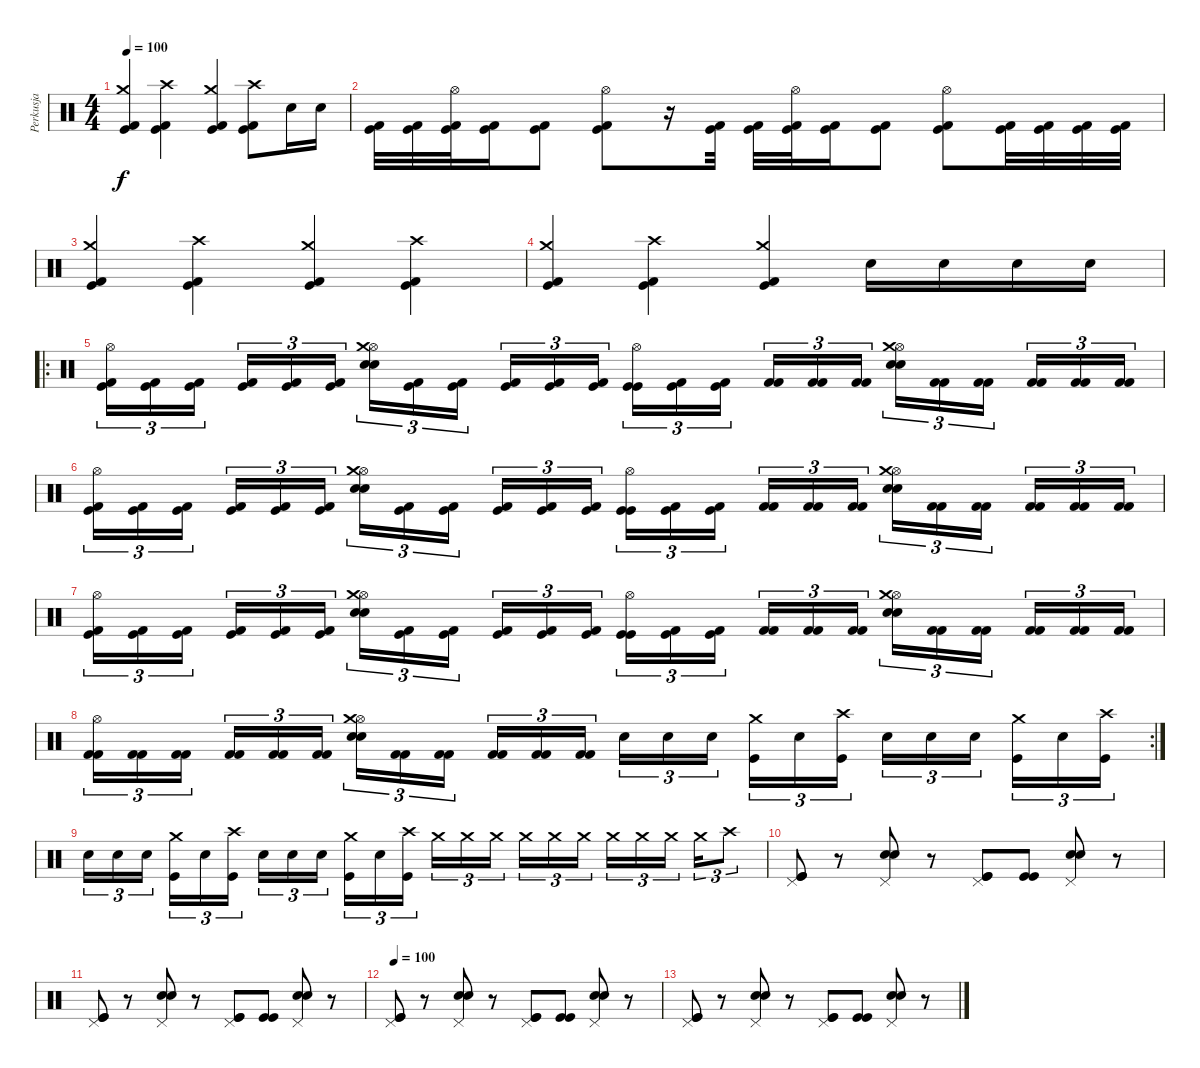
\track ("Perkusja" "Perkusja") {instrument percussion}
\staff {score}
\articulation defaults
\ts (4 4)
\tempo 100
\clef neutral
\ks c
("Kick (hit) 2" "Crash medium (hit)" "Kick (hit)").4{dy f} ("Kick (hit) 2" "Crash high (hit)" "Kick (hit)").4 ("Kick (hit) 2" "Crash medium (hit)" "Kick (hit)").4 ("Kick (hit) 2" "Crash high (hit)" "Kick (hit)").8 "Snare (hit) 2".16 "Snare (hit) 2".16 |
("Kick (hit) 2" "Kick (hit)").32 ("Kick (hit) 2" "Kick (hit)").32 ("Hi-Hat (open)" "Kick (hit) 2" "Kick (hit)").32 ("Kick (hit) 2" "Kick (hit)").16 ("Kick (hit) 2" "Kick (hit)").8 ("Hi-Hat (open)" "Kick (hit) 2" "Kick (hit)").8 r.16 ("Kick (hit) 2" "Kick (hit)").32 ("Kick (hit) 2" "Kick (hit)").32 ("Hi-Hat (open)" "Kick (hit) 2" "Kick (hit)").32 ("Kick (hit) 2" "Kick (hit)").16 ("Kick (hit) 2" "Kick (hit)").8 ("Hi-Hat (open)" "Kick (hit) 2" "Kick (hit)").8 ("Kick (hit) 2" "Kick (hit)").32 ("Kick (hit) 2" "Kick (hit)").32 ("Kick (hit) 2" "Kick (hit)").32 ("Kick (hit) 2" "Kick (hit)").32 |
("Kick (hit) 2" "Crash medium (hit)" "Kick (hit)").4 ("Kick (hit) 2" "Crash high (hit)" "Kick (hit)").4 ("Kick (hit) 2" "Crash medium (hit)" "Kick (hit)").4 ("Kick (hit) 2" "Crash high (hit)" "Kick (hit)").4 |
("Crash medium (hit)" "Kick (hit) 2" "Kick (hit)").4 ("Crash high (hit)" "Kick (hit) 2" "Kick (hit)").4 ("Crash medium (hit)" "Kick (hit) 2" "Kick (hit)").4 "Snare (hit) 2".16 "Snare (hit) 2".16 "Snare (hit) 2".16 "Snare (hit) 2".16 |
\ro
("Hi-Hat (open)" "Kick (hit) 2" "Kick (hit)").16{tu (3 2)} ("Kick (hit) 2" "Kick (hit)").16{tu (3 2)} ("Kick (hit) 2" "Kick (hit)").16{tu (3 2)} ("Kick (hit) 2" "Kick (hit)").16{tu (3 2)} ("Kick (hit) 2" "Kick (hit)").16{tu (3 2)} ("Kick (hit) 2" "Kick (hit)").16{tu (3 2)} ("Hi-Hat (open)" "Crash medium (hit)" "Snare (hit) 2" "Snare (hit) 2").16{tu (3 2)} ("Kick (hit) 2" "Kick (hit)").16{tu (3 2)} ("Kick (hit) 2" "Kick (hit)").16{tu (3 2)} ("Kick (hit) 2" "Kick (hit)").16{tu (3 2)} ("Kick (hit) 2" "Kick (hit)").16{tu (3 2)} ("Kick (hit) 2" "Kick (hit)").16{tu (3 2)} ("Hi-Hat (open)" "Kick (hit)" "Kick (hit)").16{tu (3 2)} ("Kick (hit) 2" "Kick (hit)").16{tu (3 2)} ("Kick (hit) 2" "Kick (hit)").16{tu (3 2)} ("Kick (hit) 2" "Kick (hit) 2").16{tu (3 2)} ("Kick (hit) 2" "Kick (hit) 2").16{tu (3 2)} ("Kick (hit) 2" "Kick (hit) 2").16{tu (3 2)} ("Hi-Hat (open)" "Crash medium (hit)" "Snare (hit) 2" "Snare (hit) 2").16{tu (3 2)} ("Kick (hit) 2" "Kick (hit) 2").16{tu (3 2)} ("Kick (hit) 2" "Kick (hit) 2").16{tu (3 2)} ("Kick (hit) 2" "Kick (hit) 2").16{tu (3 2)} ("Kick (hit) 2" "Kick (hit) 2").16{tu (3 2)} ("Kick (hit) 2" "Kick (hit) 2").16{tu (3 2)} |
("Hi-Hat (open)" "Kick (hit) 2" "Kick (hit)").16{tu (3 2)} ("Kick (hit) 2" "Kick (hit)").16{tu (3 2)} ("Kick (hit) 2" "Kick (hit)").16{tu (3 2)} ("Kick (hit) 2" "Kick (hit)").16{tu (3 2)} ("Kick (hit) 2" "Kick (hit)").16{tu (3 2)} ("Kick (hit) 2" "Kick (hit)").16{tu (3 2)} ("Hi-Hat (open)" "Crash medium (hit)" "Snare (hit) 2" "Snare (hit) 2").16{tu (3 2)} ("Kick (hit) 2" "Kick (hit)").16{tu (3 2)} ("Kick (hit) 2" "Kick (hit)").16{tu (3 2)} ("Kick (hit) 2" "Kick (hit)").16{tu (3 2)} ("Kick (hit) 2" "Kick (hit)").16{tu (3 2)} ("Kick (hit) 2" "Kick (hit)").16{tu (3 2)} ("Hi-Hat (open)" "Kick (hit)" "Kick (hit)").16{tu (3 2)} ("Kick (hit) 2" "Kick (hit)").16{tu (3 2)} ("Kick (hit) 2" "Kick (hit)").16{tu (3 2)} ("Kick (hit) 2" "Kick (hit) 2").16{tu (3 2)} ("Kick (hit) 2" "Kick (hit) 2").16{tu (3 2)} ("Kick (hit) 2" "Kick (hit) 2").16{tu (3 2)} ("Hi-Hat (open)" "Crash medium (hit)" "Snare (hit) 2" "Snare (hit) 2").16{tu (3 2)} ("Kick (hit) 2" "Kick (hit) 2").16{tu (3 2)} ("Kick (hit) 2" "Kick (hit) 2").16{tu (3 2)} ("Kick (hit) 2" "Kick (hit) 2").16{tu (3 2)} ("Kick (hit) 2" "Kick (hit) 2").16{tu (3 2)} ("Kick (hit) 2" "Kick (hit) 2").16{tu (3 2)} |
("Hi-Hat (open)" "Kick (hit) 2" "Kick (hit)").16{tu (3 2)} ("Kick (hit) 2" "Kick (hit)").16{tu (3 2)} ("Kick (hit) 2" "Kick (hit)").16{tu (3 2)} ("Kick (hit) 2" "Kick (hit)").16{tu (3 2)} ("Kick (hit) 2" "Kick (hit)").16{tu (3 2)} ("Kick (hit) 2" "Kick (hit)").16{tu (3 2)} ("Hi-Hat (open)" "Crash medium (hit)" "Snare (hit) 2" "Snare (hit) 2").16{tu (3 2)} ("Kick (hit) 2" "Kick (hit)").16{tu (3 2)} ("Kick (hit) 2" "Kick (hit)").16{tu (3 2)} ("Kick (hit) 2" "Kick (hit)").16{tu (3 2)} ("Kick (hit) 2" "Kick (hit)").16{tu (3 2)} ("Kick (hit) 2" "Kick (hit)").16{tu (3 2)} ("Hi-Hat (open)" "Kick (hit)" "Kick (hit)").16{tu (3 2)} ("Kick (hit) 2" "Kick (hit)").16{tu (3 2)} ("Kick (hit) 2" "Kick (hit)").16{tu (3 2)} ("Kick (hit) 2" "Kick (hit) 2").16{tu (3 2)} ("Kick (hit) 2" "Kick (hit) 2").16{tu (3 2)} ("Kick (hit) 2" "Kick (hit) 2").16{tu (3 2)} ("Hi-Hat (open)" "Crash medium (hit)" "Snare (hit) 2" "Snare (hit) 2").16{tu (3 2)} ("Kick (hit) 2" "Kick (hit) 2").16{tu (3 2)} ("Kick (hit) 2" "Kick (hit) 2").16{tu (3 2)} ("Kick (hit) 2" "Kick (hit) 2").16{tu (3 2)} ("Kick (hit) 2" "Kick (hit) 2").16{tu (3 2)} ("Kick (hit) 2" "Kick (hit) 2").16{tu (3 2)} |
\rc 2
("Hi-Hat (open)" "Kick (hit) 2" "Kick (hit) 2").16{tu (3 2)} ("Kick (hit) 2" "Kick (hit) 2").16{tu (3 2)} ("Kick (hit) 2" "Kick (hit) 2").16{tu (3 2)} ("Kick (hit) 2" "Kick (hit) 2").16{tu (3 2)} ("Kick (hit) 2" "Kick (hit) 2").16{tu (3 2)} ("Kick (hit) 2" "Kick (hit) 2").16{tu (3 2)} ("Hi-Hat (open)" "Crash medium (hit)" "Snare (hit) 2" "Snare (hit) 2").16{tu (3 2)} ("Kick (hit) 2" "Kick (hit) 2").16{tu (3 2)} ("Kick (hit) 2" "Kick (hit) 2").16{tu (3 2)} ("Kick (hit) 2" "Kick (hit) 2").16{tu (3 2)} ("Kick (hit) 2" "Kick (hit) 2").16{tu (3 2)} ("Kick (hit) 2" "Kick (hit) 2").16{tu (3 2)} "Electric Snare (hit)".16{tu (3 2)} "Electric Snare (hit)".16{tu (3 2)} "Electric Snare (hit)".16{tu (3 2)} ("Crash medium (hit)" "Kick (hit)").16{tu (3 2)} "Snare (hit) 2".16{tu (3 2)} ("Crash high (hit)" "Kick (hit)").16{tu (3 2)} "Electric Snare (hit)".16{tu (3 2)} "Electric Snare (hit)".16{tu (3 2)} "Electric Snare (hit)".16{tu (3 2)} ("Crash medium (hit)" "Kick (hit)").16{tu (3 2)} "Snare (hit) 2".16{tu (3 2)} ("Crash high (hit)" "Kick (hit)").16{tu (3 2)} |
"Electric Snare (hit)".16{tu (3 2)} "Electric Snare (hit)".16{tu (3 2)} "Electric Snare (hit)".16{tu (3 2)} ("Crash medium (hit)" "Kick (hit)").16{tu (3 2)} "Snare (hit) 2".16{tu (3 2)} ("Crash high (hit)" "Kick (hit)").16{tu (3 2)} "Electric Snare (hit)".16{tu (3 2)} "Electric Snare (hit)".16{tu (3 2)} "Electric Snare (hit)".16{tu (3 2)} ("Crash medium (hit)" "Kick (hit)").16{tu (3 2)} "Snare (hit) 2".16{tu (3 2)} ("Crash high (hit)" "Kick (hit)").16{tu (3 2)} "Crash medium (hit)".16{tu (3 2)} "Crash medium (hit)".16{tu (3 2)} "Crash medium (hit)".16{tu (3 2)} "Crash medium (hit)".16{tu (3 2)} "Crash medium (hit)".16{tu (3 2)} "Crash medium (hit)".16{tu (3 2)} "Crash medium (hit)".16{tu (3 2)} "Crash medium (hit)".16{tu (3 2)} "Crash medium (hit)".16{tu (3 2)} "Crash medium (hit)".16{tu (3 2)} "Crash high (hit)".8{tu (3 2)} |
("Pedal Hi-Hat (hit)" "Kick (hit)" "Kick (hit)").8 r.8 ("Pedal Hi-Hat (hit)" "Snare (hit) 2" "Snare (hit) 2").8 r.8 ("Pedal Hi-Hat (hit)" "Kick (hit)" "Kick (hit)").8 ("Kick (hit)" "Kick (hit)").8 ("Pedal Hi-Hat (hit)" "Snare (hit) 2" "Snare (hit) 2").8 r.8 |
("Pedal Hi-Hat (hit)" "Kick (hit)" "Kick (hit)").8 r.8 ("Pedal Hi-Hat (hit)" "Snare (hit) 2" "Snare (hit) 2").8 r.8 ("Pedal Hi-Hat (hit)" "Kick (hit)" "Kick (hit)").8 ("Kick (hit)" "Kick (hit)").8 ("Pedal Hi-Hat (hit)" "Snare (hit) 2" "Snare (hit) 2").8 r.8 |
\tempo 100
("Pedal Hi-Hat (hit)" "Kick (hit)" "Kick (hit)").8 r.8 ("Pedal Hi-Hat (hit)" "Snare (hit) 2" "Snare (hit) 2").8 r.8 ("Pedal Hi-Hat (hit)" "Kick (hit)" "Kick (hit)").8 ("Kick (hit)" "Kick (hit)").8 ("Pedal Hi-Hat (hit)" "Snare (hit) 2" "Snare (hit) 2").8 r.8 |
("Pedal Hi-Hat (hit)" "Kick (hit)" "Kick (hit)").8 r.8 ("Pedal Hi-Hat (hit)" "Snare (hit) 2" "Snare (hit) 2").8 r.8 ("Pedal Hi-Hat (hit)" "Kick (hit)" "Kick (hit)").8 ("Kick (hit)" "Kick (hit)").8 ("Pedal Hi-Hat (hit)" "Snare (hit) 2" "Snare (hit) 2").8 r.8
